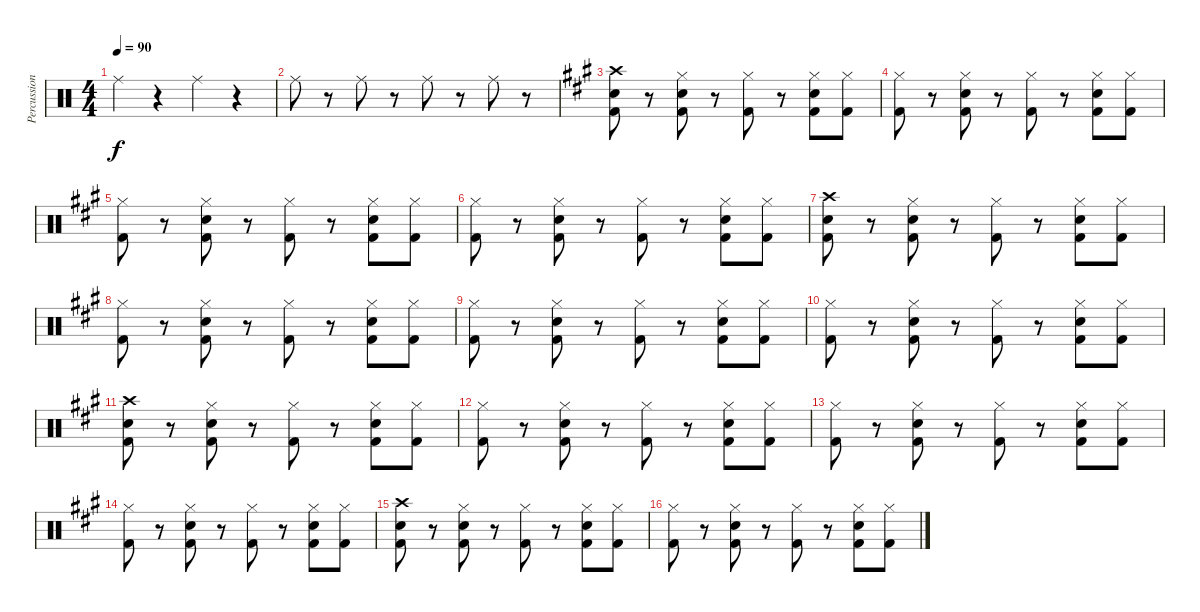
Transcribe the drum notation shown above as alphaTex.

\track ("Percussion" "Percussion") {instrument percussion}
\staff {score}
\articulation defaults
\ts (4 4)
\tempo 90
\clef neutral
\ks c "Ride (middle)".4{dy f}
r.4 "Ride (middle)".4 r.4 |
"Ride (middle)".8 r.8 "Ride (middle)".8 r.8 "Ride (middle)".8 r.8 "Ride (middle)".8 r.8 |
\ks a
("Kick (hit) 2" "Snare (hit) 2" "Crash high (hit)").8 r.8 ("Kick (hit) 2" "Snare (hit) 2" "Hi-Hat (closed)").8 r.8 ("Kick (hit) 2" "Hi-Hat (closed)").8 r.8 ("Kick (hit) 2" "Snare (hit) 2" "Hi-Hat (closed)").8 ("Kick (hit) 2" "Hi-Hat (closed)").8 |
("Kick (hit) 2" "Hi-Hat (closed)").8 r.8 ("Kick (hit) 2" "Snare (hit) 2" "Hi-Hat (closed)").8 r.8 ("Kick (hit) 2" "Hi-Hat (closed)").8 r.8 ("Kick (hit) 2" "Snare (hit) 2" "Hi-Hat (closed)").8 ("Kick (hit) 2" "Hi-Hat (closed)").8 |
("Kick (hit) 2" "Hi-Hat (closed)").8 r.8 ("Kick (hit) 2" "Snare (hit) 2" "Hi-Hat (closed)").8 r.8 ("Kick (hit) 2" "Hi-Hat (closed)").8 r.8 ("Kick (hit) 2" "Snare (hit) 2" "Hi-Hat (closed)").8 ("Kick (hit) 2" "Hi-Hat (closed)").8 |
("Kick (hit) 2" "Hi-Hat (closed)").8 r.8 ("Kick (hit) 2" "Snare (hit) 2" "Hi-Hat (closed)").8 r.8 ("Kick (hit) 2" "Hi-Hat (closed)").8 r.8 ("Kick (hit) 2" "Snare (hit) 2" "Hi-Hat (closed)").8 ("Kick (hit) 2" "Hi-Hat (closed)").8 |
("Kick (hit) 2" "Snare (hit) 2" "Crash high (hit)").8 r.8 ("Kick (hit) 2" "Snare (hit) 2" "Hi-Hat (closed)").8 r.8 ("Kick (hit) 2" "Hi-Hat (closed)").8 r.8 ("Kick (hit) 2" "Snare (hit) 2" "Hi-Hat (closed)").8 ("Kick (hit) 2" "Hi-Hat (closed)").8 |
("Kick (hit) 2" "Hi-Hat (closed)").8 r.8 ("Kick (hit) 2" "Snare (hit) 2" "Hi-Hat (closed)").8 r.8 ("Kick (hit) 2" "Hi-Hat (closed)").8 r.8 ("Kick (hit) 2" "Snare (hit) 2" "Hi-Hat (closed)").8 ("Kick (hit) 2" "Hi-Hat (closed)").8 |
("Kick (hit) 2" "Hi-Hat (closed)").8 r.8 ("Kick (hit) 2" "Snare (hit) 2" "Hi-Hat (closed)").8 r.8 ("Kick (hit) 2" "Hi-Hat (closed)").8 r.8 ("Kick (hit) 2" "Snare (hit) 2" "Hi-Hat (closed)").8 ("Kick (hit) 2" "Hi-Hat (closed)").8 |
("Kick (hit) 2" "Hi-Hat (closed)").8 r.8 ("Kick (hit) 2" "Snare (hit) 2" "Hi-Hat (closed)").8 r.8 ("Kick (hit) 2" "Hi-Hat (closed)").8 r.8 ("Kick (hit) 2" "Snare (hit) 2" "Hi-Hat (closed)").8 ("Kick (hit) 2" "Hi-Hat (closed)").8 |
("Kick (hit) 2" "Snare (hit) 2" "Crash high (hit)").8 r.8 ("Kick (hit) 2" "Snare (hit) 2" "Hi-Hat (closed)").8 r.8 ("Kick (hit) 2" "Hi-Hat (closed)").8 r.8 ("Kick (hit) 2" "Snare (hit) 2" "Hi-Hat (closed)").8 ("Kick (hit) 2" "Hi-Hat (closed)").8 |
("Kick (hit) 2" "Hi-Hat (closed)").8 r.8 ("Kick (hit) 2" "Snare (hit) 2" "Hi-Hat (closed)").8 r.8 ("Kick (hit) 2" "Hi-Hat (closed)").8 r.8 ("Kick (hit) 2" "Snare (hit) 2" "Hi-Hat (closed)").8 ("Kick (hit) 2" "Hi-Hat (closed)").8 |
("Kick (hit) 2" "Hi-Hat (closed)").8 r.8 ("Kick (hit) 2" "Snare (hit) 2" "Hi-Hat (closed)").8 r.8 ("Kick (hit) 2" "Hi-Hat (closed)").8 r.8 ("Kick (hit) 2" "Snare (hit) 2" "Hi-Hat (closed)").8 ("Kick (hit) 2" "Hi-Hat (closed)").8 |
("Kick (hit) 2" "Hi-Hat (closed)").8 r.8 ("Kick (hit) 2" "Snare (hit) 2" "Hi-Hat (closed)").8 r.8 ("Kick (hit) 2" "Hi-Hat (closed)").8 r.8 ("Kick (hit) 2" "Snare (hit) 2" "Hi-Hat (closed)").8 ("Kick (hit) 2" "Hi-Hat (closed)").8 |
("Kick (hit) 2" "Snare (hit) 2" "Crash high (hit)").8 r.8 ("Kick (hit) 2" "Snare (hit) 2" "Hi-Hat (closed)").8 r.8 ("Kick (hit) 2" "Hi-Hat (closed)").8 r.8 ("Kick (hit) 2" "Snare (hit) 2" "Hi-Hat (closed)").8 ("Kick (hit) 2" "Hi-Hat (closed)").8 |
("Kick (hit) 2" "Hi-Hat (closed)").8 r.8 ("Kick (hit) 2" "Snare (hit) 2" "Hi-Hat (closed)").8 r.8 ("Kick (hit) 2" "Hi-Hat (closed)").8 r.8 ("Kick (hit) 2" "Snare (hit) 2" "Hi-Hat (closed)").8 ("Kick (hit) 2" "Hi-Hat (closed)").8
